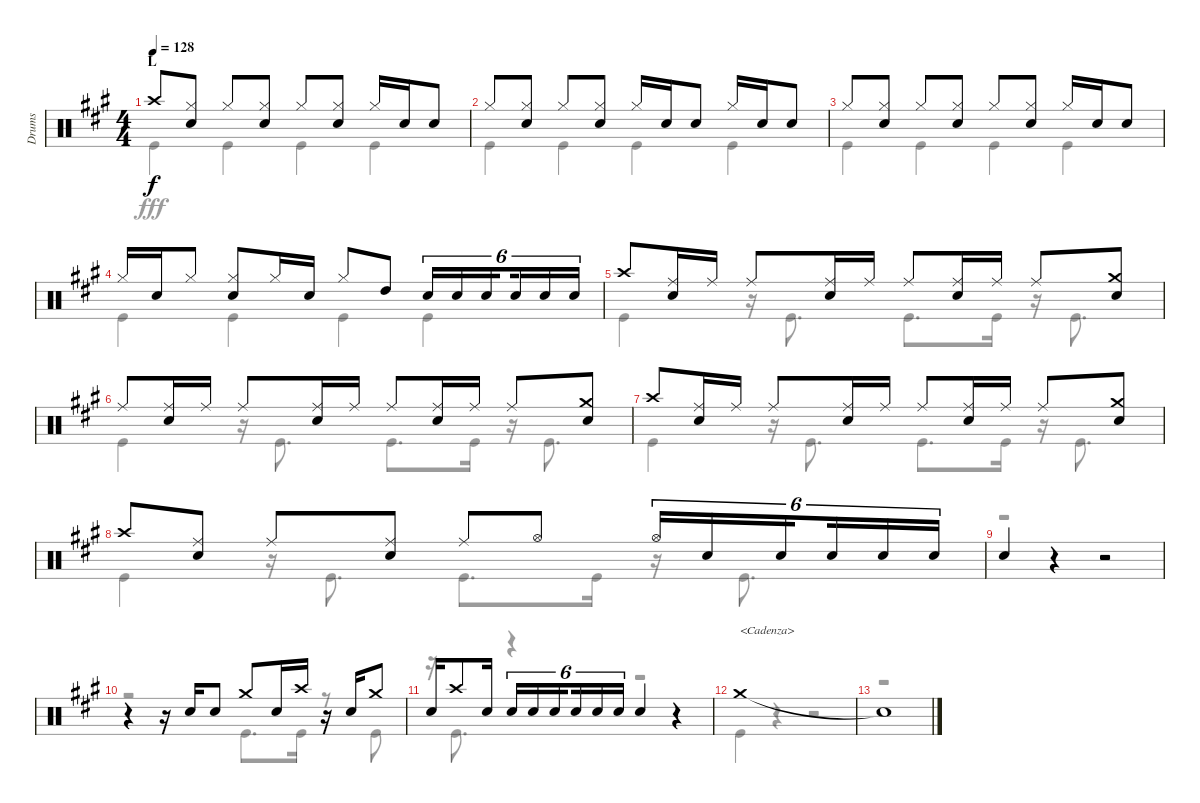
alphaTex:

\track ("Drums" "Drums") {instrument percussion}
\staff {score}
\articulation defaults
\voice
\ts (4 4)
\section ("" "L")
\tempo 128
\clef neutral
\ks a "Crash high (hit)".8{dy f}
("Hi-Hat (closed)" "Snare (hit) 2").8 "Hi-Hat (closed)".8 ("Hi-Hat (closed)" "Snare (hit) 2").8 "Hi-Hat (closed)".8 ("Hi-Hat (closed)" "Snare (hit) 2").8 "Hi-Hat (closed)".16 "Snare (hit) 2".16 "Snare (hit) 2".8 |
"Hi-Hat (closed)".8 ("Hi-Hat (closed)" "Snare (hit) 2").8 "Hi-Hat (closed)".8 ("Hi-Hat (closed)" "Snare (hit) 2").8 "Hi-Hat (closed)".16 "Snare (hit) 2".16 "Snare (hit) 2".8 "Hi-Hat (closed)".16 "Snare (hit) 2".16 "Snare (hit) 2".8 |
"Hi-Hat (closed)".8 ("Hi-Hat (closed)" "Snare (hit) 2").8 "Hi-Hat (closed)".8 ("Hi-Hat (closed)" "Snare (hit) 2").8 "Hi-Hat (closed)".8 ("Hi-Hat (closed)" "Snare (hit) 2").8 "Hi-Hat (closed)".16 "Snare (hit) 2".16 "Snare (hit) 2".8 |
"Hi-Hat (closed)".16 "Snare (hit) 2".16 "Hi-Hat (closed)".8 ("Hi-Hat (closed)" "Snare (hit) 2").8 "Hi-Hat (closed)".16 "Snare (hit) 2".16 "Hi-Hat (closed)".8 "High Tom (hit)".8 "Snare (hit) 2".16{tu (6 4)} "Snare (hit) 2".16{tu (6 4)} "Snare (hit) 2".16{tu (6 4) beam splitsecondary} "Snare (hit) 2".16{tu (6 4)} "Snare (hit) 2".16{tu (6 4)} "Snare (hit) 2".16{tu (6 4)} |
"Crash high (hit)".8 ("Ride (middle)" "Snare (hit) 2").16 "Ride (middle)".16 "Ride (middle)".8 ("Ride (middle)" "Snare (hit) 2").16 "Ride (middle)".16 "Ride (middle)".8 ("Ride (middle)" "Snare (hit) 2").16 "Ride (middle)".16 "Ride (middle)".8 ("Crash medium (hit)" "Snare (hit) 2").8 |
"Ride (middle)".8 ("Ride (middle)" "Snare (hit) 2").16 "Ride (middle)".16 "Ride (middle)".8 ("Ride (middle)" "Snare (hit) 2").16 "Ride (middle)".16 "Ride (middle)".8 ("Ride (middle)" "Snare (hit) 2").16 "Ride (middle)".16 "Ride (middle)".8 ("Crash medium (hit)" "Snare (hit) 2").8 |
"Crash high (hit)".8 ("Ride (middle)" "Snare (hit) 2").16 "Ride (middle)".16 "Ride (middle)".8 ("Ride (middle)" "Snare (hit) 2").16 "Ride (middle)".16 "Ride (middle)".8 ("Ride (middle)" "Snare (hit) 2").16 "Ride (middle)".16 "Ride (middle)".8 ("Crash medium (hit)" "Snare (hit) 2").8 |
"Crash high (hit)".8 ("Ride (middle)" "Snare (hit) 2").8 "Ride (middle)".8 ("Ride (middle)" "Snare (hit) 2").8 "Ride (middle)".8 "Hi-Hat (open)".8 "Hi-Hat (open)".16{tu (6 4)} "Snare (hit) 2".16{tu (6 4)} "Snare (hit) 2".16{tu (6 4) beam splitsecondary} "Snare (hit) 2".16{tu (6 4)} "Snare (hit) 2".16{tu (6 4)} "Snare (hit) 2".16{tu (6 4)} |
"Snare (hit) 2".4 r.4 r.2 |
r.4 r.16 "Snare (hit) 2".16 "Snare (hit) 2".8 "Crash medium (hit)".8 "Snare (hit) 2".16 "Crash high (hit)".16 r.16 "Snare (hit) 2".16 "Crash medium (hit)".8 |
"Snare (hit) 2".16 "Crash high (hit)".8 "Snare (hit) 2".16 "Snare (hit) 2".16{tu (6 4)} "Snare (hit) 2".16{tu (6 4)} "Snare (hit) 2".16{tu (6 4) beam splitsecondary} "Snare (hit) 2".16{tu (6 4)} "Snare (hit) 2".16{tu (6 4)} "Snare (hit) 2".16{tu (6 4)} "Snare (hit) 2".4 r.4 |
"Crash medium (hit)".1{txt "<Cadenza>"} |
"Snare (hit)"{t}.1
\voice
\clef neutral
\ottava regular
\simile none
\ks a "Kick (hit)".4{dy fff} "Kick (hit)".4 "Kick (hit)".4 "Kick (hit)".4
|
"Kick (hit)".4 "Kick (hit)".4 "Kick (hit)".4 "Kick (hit)".4 |
"Kick (hit)".4 "Kick (hit)".4 "Kick (hit)".4 "Kick (hit)".4 |
"Kick (hit)".4 "Kick (hit)".4 "Kick (hit)".4 "Kick (hit)".4 |
"Kick (hit)".4 r.16 "Kick (hit)".8{d} "Kick (hit)".8{d} "Kick (hit)".16 r.16 "Kick (hit)".8{d} |
"Kick (hit)".4 r.16 "Kick (hit)".8{d} "Kick (hit)".8{d} "Kick (hit)".16 r.16 "Kick (hit)".8{d} |
"Kick (hit)".4 r.16 "Kick (hit)".8{d} "Kick (hit)".8{d} "Kick (hit)".16 r.16 "Kick (hit)".8{d} |
"Kick (hit)".4 r.16 "Kick (hit)".8{d} "Kick (hit)".8{d} "Kick (hit)".16 r.16 "Kick (hit)".8{d} |
r.1 |
r.2 "Kick (hit)".8{d} "Kick (hit)".16 r.8 "Kick (hit)".8 |
r.16 "Kick (hit)".8{d} r.4 r.2 |
"Kick (hit)".4 r.4 r.2 |
r.1
